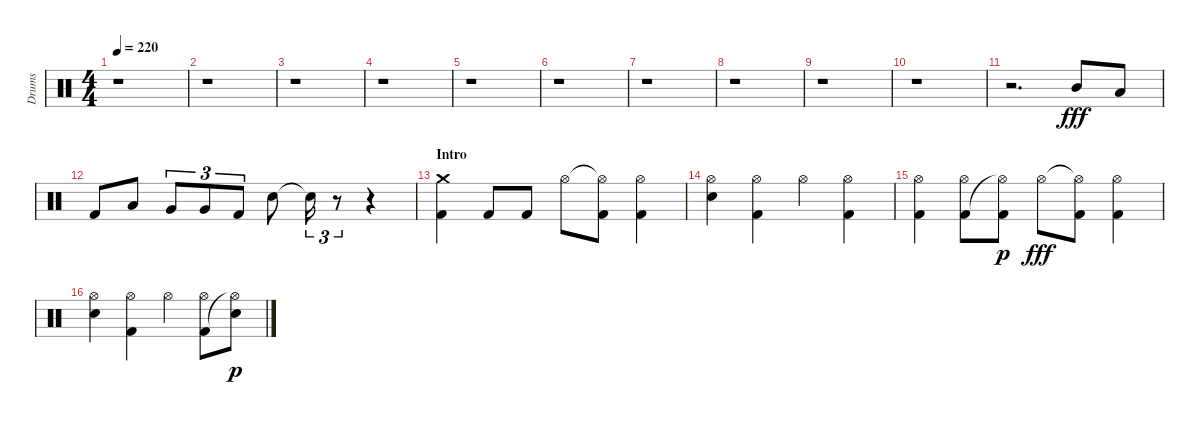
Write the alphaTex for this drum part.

\track ("Drums" "Drums") {instrument percussion}
\staff {score}
\articulation defaults
\ts (4 4)
\tempo 220
\clef neutral
\ks aminor
r.1{dy fff} |
r.1 |
r.1 |
r.1 |
r.1 |
r.1 |
r.1 |
r.1 |
r.1 |
r.1 |
r.2{d} "Mid Tom (hit)".8 "Low Tom (hit)".8 |
"Kick (hit) 2".8 "Low Tom (hit)".8 "Very Low Tom (hit)".8{tu (3 2)} "Very Low Tom (hit)".8{tu (3 2)} "Kick (hit) 2".8{tu (3 2)} "Snare (hit) 2".8 "Snare (hit) 2"{t}.16{tu (3 2)} r.8{tu (3 2)} r.4 |
\section ("" "Intro")
("Kick (hit) 2" "Crash medium (hit)").4 "Kick (hit) 2".8 "Kick (hit) 2".8 "Hi-Hat (open)".8 ("Hi-Hat (open)"{t} "Kick (hit) 2").8 ("Kick (hit) 2" "Hi-Hat (open)").4 |
("Snare (hit) 2" "Hi-Hat (open)").4 ("Kick (hit) 2" "Hi-Hat (open)").4 "Hi-Hat (open)".4 ("Kick (hit) 2" "Hi-Hat (open)").4 |
("Kick (hit) 2" "Hi-Hat (open)").4 ("Kick (hit) 2" "Hi-Hat (open)").8 ("Hi-Hat (open)"{t} "Kick (hit) 2").8{dy p} "Hi-Hat (open)".8{dy fff} ("Hi-Hat (open)"{t} "Kick (hit) 2").8 ("Kick (hit) 2" "Hi-Hat (open)").4 |
("Snare (hit) 2" "Hi-Hat (open)").4 ("Kick (hit) 2" "Hi-Hat (open)").4 "Hi-Hat (open)".4 ("Kick (hit) 2" "Hi-Hat (open)").8 ("Hi-Hat (open)"{t} "Snare (hit) 2").8{dy p}
